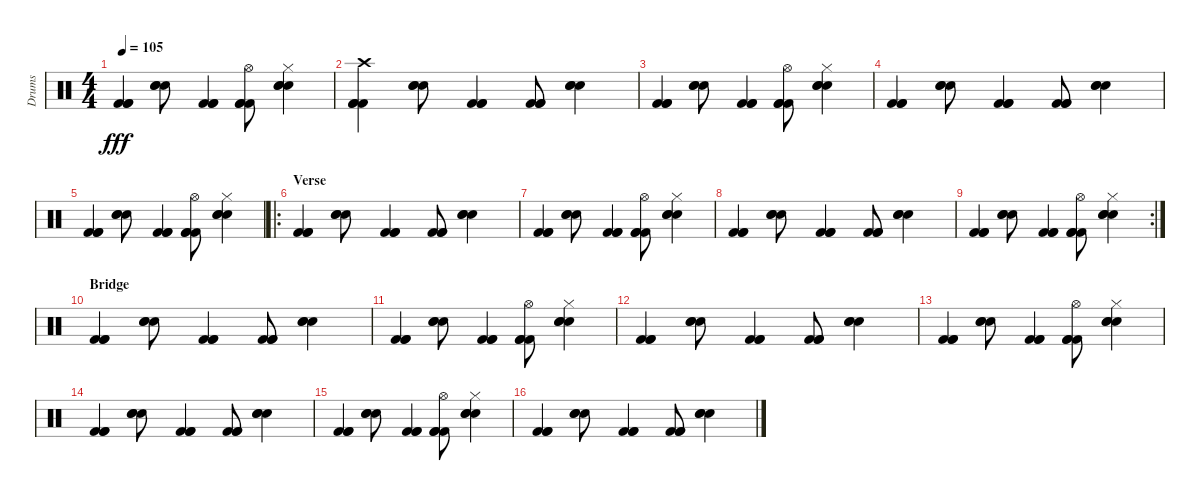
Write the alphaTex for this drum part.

\track ("Drums" "Drums") {instrument percussion}
\staff {score}
\articulation defaults
\ts (4 4)
\tempo 105
\clef neutral
\ks c
("Kick (hit) 2" "Kick (hit) 2" "Kick (hit) 2").4{dy fff} ("Electric Snare (hit)" "Electric Snare (hit)" "Electric Snare (hit)").8 ("Kick (hit) 2" "Kick (hit) 2" "Kick (hit) 2").4 ("Kick (hit) 2" "Kick (hit) 2" "Kick (hit) 2" "Hi-Hat (open)").8 ("Electric Snare (hit)" "Electric Snare (hit)" "Electric Snare (hit)" "Hi-Hat (closed)").4 |
("Kick (hit) 2" "Kick (hit) 2" "Kick (hit) 2" "Crash high (hit)").4 ("Electric Snare (hit)" "Electric Snare (hit)" "Electric Snare (hit)").8 ("Kick (hit) 2" "Kick (hit) 2" "Kick (hit) 2").4 ("Kick (hit) 2" "Kick (hit) 2" "Kick (hit) 2").8 ("Electric Snare (hit)" "Electric Snare (hit)" "Electric Snare (hit)").4 |
("Kick (hit) 2" "Kick (hit) 2" "Kick (hit) 2").4 ("Electric Snare (hit)" "Electric Snare (hit)" "Electric Snare (hit)").8 ("Kick (hit) 2" "Kick (hit) 2" "Kick (hit) 2").4 ("Kick (hit) 2" "Kick (hit) 2" "Kick (hit) 2" "Hi-Hat (open)").8 ("Electric Snare (hit)" "Electric Snare (hit)" "Electric Snare (hit)" "Hi-Hat (closed)").4 |
("Kick (hit) 2" "Kick (hit) 2" "Kick (hit) 2").4 ("Electric Snare (hit)" "Electric Snare (hit)" "Electric Snare (hit)").8 ("Kick (hit) 2" "Kick (hit) 2" "Kick (hit) 2").4 ("Kick (hit) 2" "Kick (hit) 2" "Kick (hit) 2").8 ("Electric Snare (hit)" "Electric Snare (hit)" "Electric Snare (hit)").4 |
("Kick (hit) 2" "Kick (hit) 2" "Kick (hit) 2").4 ("Electric Snare (hit)" "Electric Snare (hit)" "Electric Snare (hit)").8 ("Kick (hit) 2" "Kick (hit) 2" "Kick (hit) 2").4 ("Kick (hit) 2" "Kick (hit) 2" "Kick (hit) 2" "Hi-Hat (open)").8 ("Electric Snare (hit)" "Electric Snare (hit)" "Electric Snare (hit)" "Hi-Hat (closed)").4 |
\ro
\section ("" "Verse")
("Kick (hit) 2" "Kick (hit) 2" "Kick (hit) 2").4 ("Electric Snare (hit)" "Electric Snare (hit)" "Electric Snare (hit)").8 ("Kick (hit) 2" "Kick (hit) 2" "Kick (hit) 2").4 ("Kick (hit) 2" "Kick (hit) 2" "Kick (hit) 2").8 ("Electric Snare (hit)" "Electric Snare (hit)" "Electric Snare (hit)").4 |
("Kick (hit) 2" "Kick (hit) 2" "Kick (hit) 2").4 ("Electric Snare (hit)" "Electric Snare (hit)" "Electric Snare (hit)").8 ("Kick (hit) 2" "Kick (hit) 2" "Kick (hit) 2").4 ("Kick (hit) 2" "Kick (hit) 2" "Kick (hit) 2" "Hi-Hat (open)").8 ("Electric Snare (hit)" "Electric Snare (hit)" "Electric Snare (hit)" "Hi-Hat (closed)").4 |
("Kick (hit) 2" "Kick (hit) 2" "Kick (hit) 2").4 ("Electric Snare (hit)" "Electric Snare (hit)" "Electric Snare (hit)").8 ("Kick (hit) 2" "Kick (hit) 2" "Kick (hit) 2").4 ("Kick (hit) 2" "Kick (hit) 2" "Kick (hit) 2").8 ("Electric Snare (hit)" "Electric Snare (hit)" "Electric Snare (hit)").4 |
\rc 2
("Kick (hit) 2" "Kick (hit) 2" "Kick (hit) 2").4 ("Electric Snare (hit)" "Electric Snare (hit)" "Electric Snare (hit)").8 ("Kick (hit) 2" "Kick (hit) 2" "Kick (hit) 2").4 ("Kick (hit) 2" "Kick (hit) 2" "Kick (hit) 2" "Hi-Hat (open)").8 ("Electric Snare (hit)" "Electric Snare (hit)" "Electric Snare (hit)" "Hi-Hat (closed)").4 |
\section ("" "Bridge")
("Kick (hit) 2" "Kick (hit) 2" "Kick (hit) 2").4 ("Electric Snare (hit)" "Electric Snare (hit)" "Electric Snare (hit)").8 ("Kick (hit) 2" "Kick (hit) 2" "Kick (hit) 2").4 ("Kick (hit) 2" "Kick (hit) 2" "Kick (hit) 2").8 ("Electric Snare (hit)" "Electric Snare (hit)" "Electric Snare (hit)").4 |
("Kick (hit) 2" "Kick (hit) 2" "Kick (hit) 2").4 ("Electric Snare (hit)" "Electric Snare (hit)" "Electric Snare (hit)").8 ("Kick (hit) 2" "Kick (hit) 2" "Kick (hit) 2").4 ("Kick (hit) 2" "Kick (hit) 2" "Kick (hit) 2" "Hi-Hat (open)").8 ("Electric Snare (hit)" "Electric Snare (hit)" "Electric Snare (hit)" "Hi-Hat (closed)").4 |
("Kick (hit) 2" "Kick (hit) 2" "Kick (hit) 2").4 ("Electric Snare (hit)" "Electric Snare (hit)" "Electric Snare (hit)").8 ("Kick (hit) 2" "Kick (hit) 2" "Kick (hit) 2").4 ("Kick (hit) 2" "Kick (hit) 2" "Kick (hit) 2").8 ("Electric Snare (hit)" "Electric Snare (hit)" "Electric Snare (hit)").4 |
("Kick (hit) 2" "Kick (hit) 2" "Kick (hit) 2").4 ("Electric Snare (hit)" "Electric Snare (hit)" "Electric Snare (hit)").8 ("Kick (hit) 2" "Kick (hit) 2" "Kick (hit) 2").4 ("Kick (hit) 2" "Kick (hit) 2" "Kick (hit) 2" "Hi-Hat (open)").8 ("Electric Snare (hit)" "Electric Snare (hit)" "Electric Snare (hit)" "Hi-Hat (closed)").4 |
("Kick (hit) 2" "Kick (hit) 2" "Kick (hit) 2").4 ("Electric Snare (hit)" "Electric Snare (hit)" "Electric Snare (hit)").8 ("Kick (hit) 2" "Kick (hit) 2" "Kick (hit) 2").4 ("Kick (hit) 2" "Kick (hit) 2" "Kick (hit) 2").8 ("Electric Snare (hit)" "Electric Snare (hit)" "Electric Snare (hit)").4 |
("Kick (hit) 2" "Kick (hit) 2" "Kick (hit) 2").4 ("Electric Snare (hit)" "Electric Snare (hit)" "Electric Snare (hit)").8 ("Kick (hit) 2" "Kick (hit) 2" "Kick (hit) 2").4 ("Kick (hit) 2" "Kick (hit) 2" "Kick (hit) 2" "Hi-Hat (open)").8 ("Electric Snare (hit)" "Electric Snare (hit)" "Electric Snare (hit)" "Hi-Hat (closed)").4 |
("Kick (hit) 2" "Kick (hit) 2" "Kick (hit) 2").4 ("Electric Snare (hit)" "Electric Snare (hit)" "Electric Snare (hit)").8 ("Kick (hit) 2" "Kick (hit) 2" "Kick (hit) 2").4 ("Kick (hit) 2" "Kick (hit) 2" "Kick (hit) 2").8 ("Electric Snare (hit)" "Electric Snare (hit)" "Electric Snare (hit)").4
